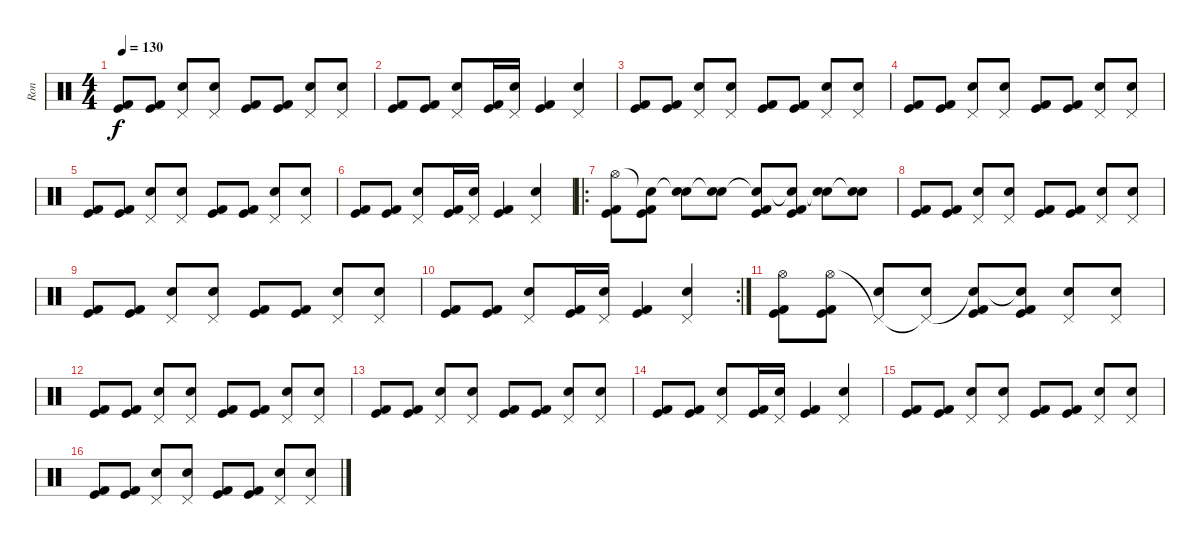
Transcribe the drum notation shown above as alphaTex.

\track ("Ron" "Ron") {instrument percussion}
\staff {score}
\articulation defaults
\ts (4 4)
\tempo 130
\clef neutral
\ks c
("Kick (hit) 2" "Kick (hit)").8{dy f} ("Kick (hit) 2" "Kick (hit)").8 ("Pedal Hi-Hat (hit)" "Electric Snare (hit)").8 ("Pedal Hi-Hat (hit)" "Electric Snare (hit)").8 ("Kick (hit) 2" "Kick (hit)").8 ("Kick (hit) 2" "Kick (hit)").8 ("Pedal Hi-Hat (hit)" "Electric Snare (hit)").8 ("Pedal Hi-Hat (hit)" "Electric Snare (hit)").8 |
("Kick (hit) 2" "Kick (hit)").8 ("Kick (hit) 2" "Kick (hit)").8 ("Pedal Hi-Hat (hit)" "Electric Snare (hit)").8 ("Kick (hit) 2" "Kick (hit)").16 ("Pedal Hi-Hat (hit)" "Electric Snare (hit)").16 ("Kick (hit) 2" "Kick (hit)").4 ("Pedal Hi-Hat (hit)" "Electric Snare (hit)").4 |
("Kick (hit) 2" "Kick (hit)").8 ("Kick (hit) 2" "Kick (hit)").8 ("Pedal Hi-Hat (hit)" "Electric Snare (hit)").8 ("Pedal Hi-Hat (hit)" "Electric Snare (hit)").8 ("Kick (hit) 2" "Kick (hit)").8 ("Kick (hit) 2" "Kick (hit)").8 ("Pedal Hi-Hat (hit)" "Electric Snare (hit)").8 ("Pedal Hi-Hat (hit)" "Electric Snare (hit)").8 |
("Kick (hit) 2" "Kick (hit)").8 ("Kick (hit) 2" "Kick (hit)").8 ("Pedal Hi-Hat (hit)" "Electric Snare (hit)").8 ("Pedal Hi-Hat (hit)" "Electric Snare (hit)").8 ("Kick (hit) 2" "Kick (hit)").8 ("Kick (hit) 2" "Kick (hit)").8 ("Pedal Hi-Hat (hit)" "Electric Snare (hit)").8 ("Pedal Hi-Hat (hit)" "Electric Snare (hit)").8 |
("Kick (hit) 2" "Kick (hit)").8 ("Kick (hit) 2" "Kick (hit)").8 ("Pedal Hi-Hat (hit)" "Electric Snare (hit)").8 ("Pedal Hi-Hat (hit)" "Electric Snare (hit)").8 ("Kick (hit) 2" "Kick (hit)").8 ("Kick (hit) 2" "Kick (hit)").8 ("Pedal Hi-Hat (hit)" "Electric Snare (hit)").8 ("Pedal Hi-Hat (hit)" "Electric Snare (hit)").8 |
("Kick (hit) 2" "Kick (hit)").8 ("Kick (hit) 2" "Kick (hit)").8 ("Pedal Hi-Hat (hit)" "Electric Snare (hit)").8 ("Kick (hit) 2" "Kick (hit)").16 ("Pedal Hi-Hat (hit)" "Electric Snare (hit)").16 ("Kick (hit) 2" "Kick (hit)").4 ("Pedal Hi-Hat (hit)" "Electric Snare (hit)").4 |
\ro
("Hi-Hat (open)" "Kick (hit) 2" "Kick (hit)").8 ("Snare (hit)"{t} "Kick (hit) 2" "Kick (hit)").8 ("Snare (hit)"{t} "Electric Snare (hit)").8 ("Snare (hit)"{t} "Electric Snare (hit)").8 ("Snare (hit)"{t} "Kick (hit) 2" "Kick (hit)").8 ("Snare (hit)"{t} "Kick (hit) 2" "Kick (hit)").8 ("Snare (hit)"{t} "Electric Snare (hit)").8 ("Snare (hit)"{t} "Electric Snare (hit)").8 |
("Kick (hit) 2" "Kick (hit)").8 ("Kick (hit) 2" "Kick (hit)").8 ("Pedal Hi-Hat (hit)" "Electric Snare (hit)").8 ("Pedal Hi-Hat (hit)" "Electric Snare (hit)").8 ("Kick (hit) 2" "Kick (hit)").8 ("Kick (hit) 2" "Kick (hit)").8 ("Pedal Hi-Hat (hit)" "Electric Snare (hit)").8 ("Pedal Hi-Hat (hit)" "Electric Snare (hit)").8 |
("Kick (hit) 2" "Kick (hit)").8 ("Kick (hit) 2" "Kick (hit)").8 ("Pedal Hi-Hat (hit)" "Electric Snare (hit)").8 ("Pedal Hi-Hat (hit)" "Electric Snare (hit)").8 ("Kick (hit) 2" "Kick (hit)").8 ("Kick (hit) 2" "Kick (hit)").8 ("Pedal Hi-Hat (hit)" "Electric Snare (hit)").8 ("Pedal Hi-Hat (hit)" "Electric Snare (hit)").8 |
\rc 2
("Kick (hit) 2" "Kick (hit)").8 ("Kick (hit) 2" "Kick (hit)").8 ("Pedal Hi-Hat (hit)" "Electric Snare (hit)").8 ("Kick (hit) 2" "Kick (hit)").16 ("Pedal Hi-Hat (hit)" "Electric Snare (hit)").16 ("Kick (hit) 2" "Kick (hit)").4 ("Pedal Hi-Hat (hit)" "Electric Snare (hit)").4 |
("Hi-Hat (open)" "Kick (hit) 2" "Kick (hit)").8 ("Hi-Hat (open)" "Kick (hit) 2" "Kick (hit)").8 ("Pedal Hi-Hat (hit)"{t} "Electric Snare (hit)").8 ("Pedal Hi-Hat (hit)"{t} "Electric Snare (hit)").8 ("Snare (hit)"{t} "Kick (hit) 2" "Kick (hit)").8 ("Snare (hit)"{t} "Kick (hit) 2" "Kick (hit)").8 ("Pedal Hi-Hat (hit)" "Electric Snare (hit)").8 ("Pedal Hi-Hat (hit)" "Electric Snare (hit)").8 |
("Kick (hit) 2" "Kick (hit)").8 ("Kick (hit) 2" "Kick (hit)").8 ("Pedal Hi-Hat (hit)" "Electric Snare (hit)").8 ("Pedal Hi-Hat (hit)" "Electric Snare (hit)").8 ("Kick (hit) 2" "Kick (hit)").8 ("Kick (hit) 2" "Kick (hit)").8 ("Pedal Hi-Hat (hit)" "Electric Snare (hit)").8 ("Pedal Hi-Hat (hit)" "Electric Snare (hit)").8 |
("Kick (hit) 2" "Kick (hit)").8 ("Kick (hit) 2" "Kick (hit)").8 ("Pedal Hi-Hat (hit)" "Electric Snare (hit)").8 ("Pedal Hi-Hat (hit)" "Electric Snare (hit)").8 ("Kick (hit) 2" "Kick (hit)").8 ("Kick (hit) 2" "Kick (hit)").8 ("Pedal Hi-Hat (hit)" "Electric Snare (hit)").8 ("Pedal Hi-Hat (hit)" "Electric Snare (hit)").8 |
("Kick (hit) 2" "Kick (hit)").8 ("Kick (hit) 2" "Kick (hit)").8 ("Pedal Hi-Hat (hit)" "Electric Snare (hit)").8 ("Kick (hit) 2" "Kick (hit)").16 ("Pedal Hi-Hat (hit)" "Electric Snare (hit)").16 ("Kick (hit) 2" "Kick (hit)").4 ("Pedal Hi-Hat (hit)" "Electric Snare (hit)").4 |
("Kick (hit) 2" "Kick (hit)").8 ("Kick (hit) 2" "Kick (hit)").8 ("Pedal Hi-Hat (hit)" "Electric Snare (hit)").8 ("Pedal Hi-Hat (hit)" "Electric Snare (hit)").8 ("Kick (hit) 2" "Kick (hit)").8 ("Kick (hit) 2" "Kick (hit)").8 ("Pedal Hi-Hat (hit)" "Electric Snare (hit)").8 ("Pedal Hi-Hat (hit)" "Electric Snare (hit)").8 |
("Kick (hit) 2" "Kick (hit)").8 ("Kick (hit) 2" "Kick (hit)").8 ("Pedal Hi-Hat (hit)" "Electric Snare (hit)").8 ("Pedal Hi-Hat (hit)" "Electric Snare (hit)").8 ("Kick (hit) 2" "Kick (hit)").8 ("Kick (hit) 2" "Kick (hit)").8 ("Pedal Hi-Hat (hit)" "Electric Snare (hit)").8 ("Pedal Hi-Hat (hit)" "Electric Snare (hit)").8
